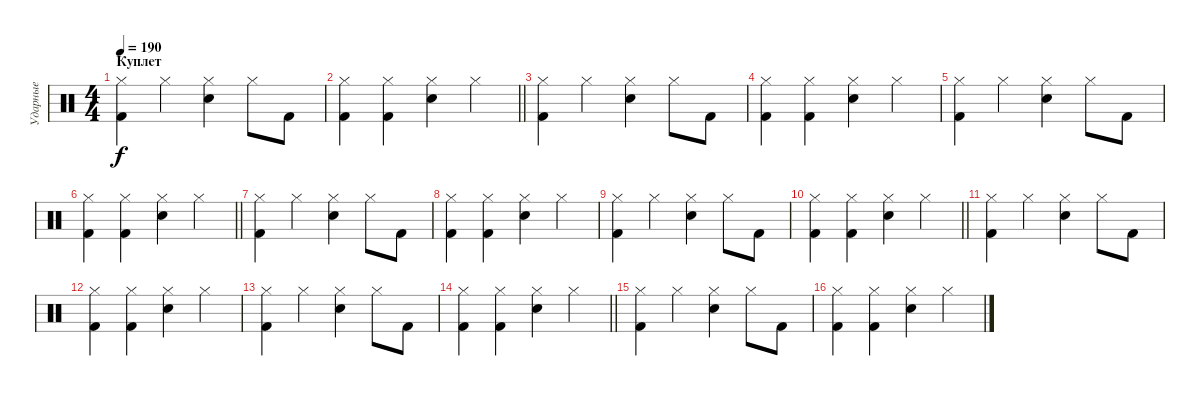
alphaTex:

\track ("Ударные" "Ударные") {instrument percussion}
\staff {score}
\articulation defaults
\ts (4 4)
\section ("" "Куплет")
\tempo 190
\clef neutral
\ks c
("Kick (hit) 2" "Hi-Hat (closed)").4{dy f} "Hi-Hat (closed)".4 ("Hand Clap (hit)" "Hi-Hat (closed)").4 "Hi-Hat (closed)".8 "Kick (hit) 2".8 |
\barLineRight lightlight
("Kick (hit) 2" "Hi-Hat (closed)").4 ("Kick (hit) 2" "Hi-Hat (closed)").4 ("Hand Clap (hit)" "Hi-Hat (closed)").4 "Hi-Hat (closed)".4 |
("Kick (hit) 2" "Hi-Hat (closed)").4 "Hi-Hat (closed)".4 ("Hand Clap (hit)" "Hi-Hat (closed)").4 "Hi-Hat (closed)".8 "Kick (hit) 2".8 |
("Kick (hit) 2" "Hi-Hat (closed)").4 ("Kick (hit) 2" "Hi-Hat (closed)").4 ("Hand Clap (hit)" "Hi-Hat (closed)").4 "Hi-Hat (closed)".4 |
("Kick (hit) 2" "Hi-Hat (closed)").4 "Hi-Hat (closed)".4 ("Hand Clap (hit)" "Hi-Hat (closed)").4 "Hi-Hat (closed)".8 "Kick (hit) 2".8 |
\barLineRight lightlight
("Kick (hit) 2" "Hi-Hat (closed)").4 ("Kick (hit) 2" "Hi-Hat (closed)").4 ("Hand Clap (hit)" "Hi-Hat (closed)").4 "Hi-Hat (closed)".4 |
("Kick (hit) 2" "Hi-Hat (closed)").4 "Hi-Hat (closed)".4 ("Hand Clap (hit)" "Hi-Hat (closed)").4 "Hi-Hat (closed)".8 "Kick (hit) 2".8 |
("Kick (hit) 2" "Hi-Hat (closed)").4 ("Kick (hit) 2" "Hi-Hat (closed)").4 ("Hand Clap (hit)" "Hi-Hat (closed)").4 "Hi-Hat (closed)".4 |
("Kick (hit) 2" "Hi-Hat (closed)").4 "Hi-Hat (closed)".4 ("Hand Clap (hit)" "Hi-Hat (closed)").4 "Hi-Hat (closed)".8 "Kick (hit) 2".8 |
\barLineRight lightlight
("Kick (hit) 2" "Hi-Hat (closed)").4 ("Kick (hit) 2" "Hi-Hat (closed)").4 ("Hand Clap (hit)" "Hi-Hat (closed)").4 "Hi-Hat (closed)".4 |
("Kick (hit) 2" "Hi-Hat (closed)").4 "Hi-Hat (closed)".4 ("Hand Clap (hit)" "Hi-Hat (closed)").4 "Hi-Hat (closed)".8 "Kick (hit) 2".8 |
("Kick (hit) 2" "Hi-Hat (closed)").4 ("Kick (hit) 2" "Hi-Hat (closed)").4 ("Hand Clap (hit)" "Hi-Hat (closed)").4 "Hi-Hat (closed)".4 |
("Kick (hit) 2" "Hi-Hat (closed)").4 "Hi-Hat (closed)".4 ("Hand Clap (hit)" "Hi-Hat (closed)").4 "Hi-Hat (closed)".8 "Kick (hit) 2".8 |
\barLineRight lightlight
("Kick (hit) 2" "Hi-Hat (closed)").4 ("Kick (hit) 2" "Hi-Hat (closed)").4 ("Hand Clap (hit)" "Hi-Hat (closed)").4 "Hi-Hat (closed)".4 |
("Kick (hit) 2" "Hi-Hat (closed)").4 "Hi-Hat (closed)".4 ("Hand Clap (hit)" "Hi-Hat (closed)").4 "Hi-Hat (closed)".8 "Kick (hit) 2".8 |
("Kick (hit) 2" "Hi-Hat (closed)").4 ("Kick (hit) 2" "Hi-Hat (closed)").4 ("Hand Clap (hit)" "Hi-Hat (closed)").4 "Hi-Hat (closed)".4
